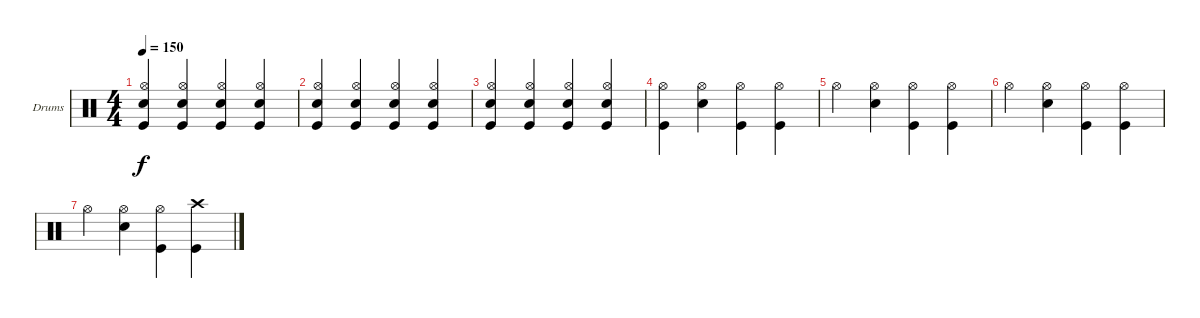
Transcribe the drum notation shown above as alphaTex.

\defaultSystemsLayout 4
\bracketExtendMode groupsimilarinstruments
\firstSystemTrackNameOrientation horizontal
\otherSystemsTrackNameOrientation horizontal
\track ("Drums" "Drums") {instrument percussion}
\staff {score}
\articulation defaults
\ts (4 4)
\tempo 150
\clef neutral
\scale
0.333333
\ks c
("Kick (hit)" "Hi-Hat (open)" "Snare (hit) 2").4{dy f} ("Kick (hit)" "Hi-Hat (open)" "Snare (hit) 2").4 ("Kick (hit)" "Hi-Hat (open)" "Snare (hit) 2").4 ("Kick (hit)" "Hi-Hat (open)" "Snare (hit) 2").4 |
\scale
0.333333 ("Kick (hit)" "Hi-Hat (open)" "Snare (hit) 2").4 ("Kick (hit)" "Hi-Hat (open)" "Snare (hit) 2").4 ("Kick (hit)" "Hi-Hat (open)" "Snare (hit) 2").4 ("Kick (hit)" "Hi-Hat (open)" "Snare (hit) 2").4 |
\scale
0.333333 ("Kick (hit)" "Hi-Hat (open)" "Snare (hit) 2").4 ("Kick (hit)" "Hi-Hat (open)" "Snare (hit) 2").4 ("Kick (hit)" "Hi-Hat (open)" "Snare (hit) 2").4 ("Kick (hit)" "Hi-Hat (open)" "Snare (hit) 2").4 |
\scale
0.333333 ("Kick (hit)" "Hi-Hat (open)").4 ("Snare (hit) 2" "Hi-Hat (open)").4 ("Kick (hit)" "Hi-Hat (open)").4 ("Kick (hit)" "Hi-Hat (open)").4 |
\scale
0.333333 "Hi-Hat (open)".4 ("Snare (hit) 2" "Hi-Hat (open)").4 ("Kick (hit)" "Hi-Hat (open)").4 ("Kick (hit)" "Hi-Hat (open)").4 |
\scale
0.333333 "Hi-Hat (open)".4 ("Snare (hit) 2" "Hi-Hat (open)").4 ("Kick (hit)" "Hi-Hat (open)").4 ("Kick (hit)" "Hi-Hat (open)").4 |
\scale
0.333333 "Hi-Hat (open)".4 ("Snare (hit) 2" "Hi-Hat (open)").4 ("Kick (hit)" "Hi-Hat (open)").4 ("Kick (hit)" "Crash high (hit)").4 |
\scale
0.333333 |
\scale
0.333333 |
\scale
0.333333 |
\scale
0.333333 |
\scale
0.333333 |
\scale
0.333333 |
\scale
0.333333 |
\scale
0.333333 |
\scale
0.333333
